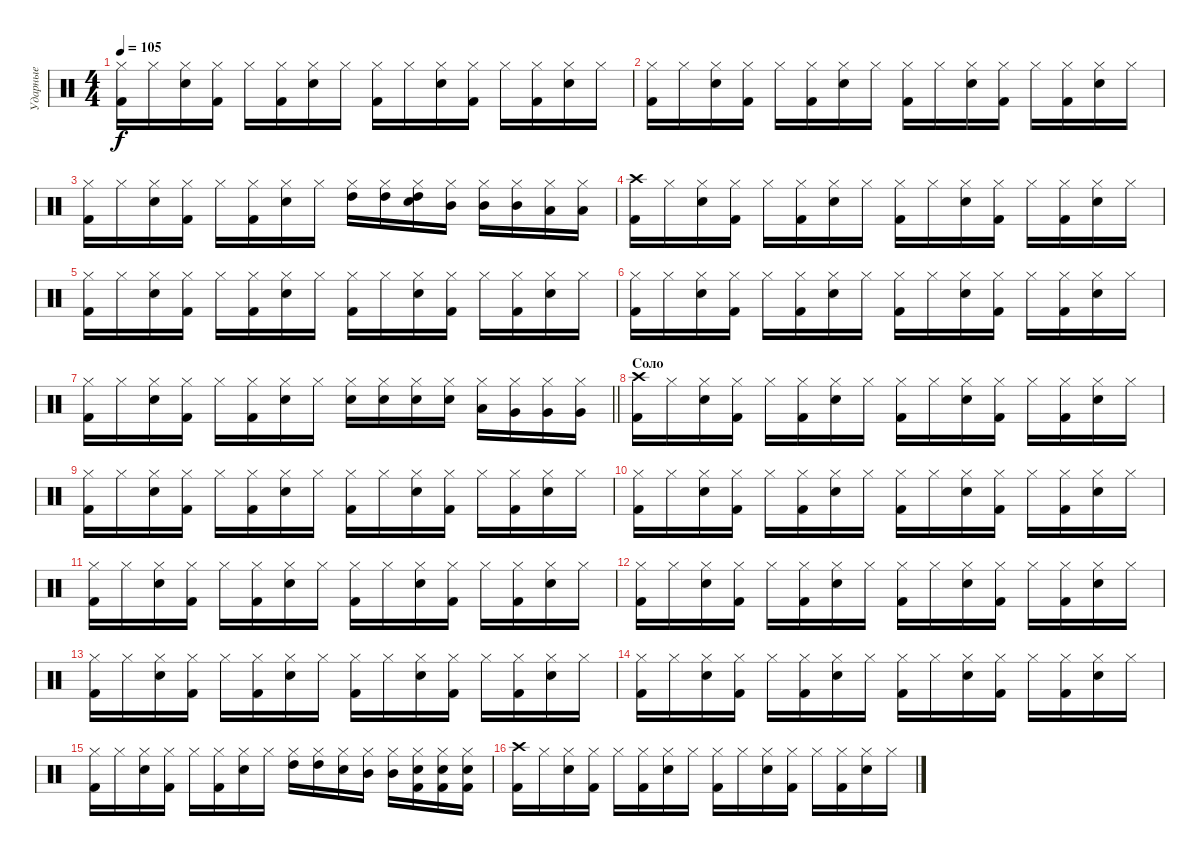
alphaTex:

\track ("Ударные" "Ударные") {instrument percussion}
\staff {score}
\articulation defaults
\ts (4 4)
\tempo 105
\clef neutral
\ks aminor
("Hi-Hat (closed)" "Kick (hit) 2").16{dy f} "Hi-Hat (closed)".16 ("Hi-Hat (closed)" "Snare (hit) 2").16 ("Hi-Hat (closed)" "Kick (hit) 2").16 "Hi-Hat (closed)".16 ("Hi-Hat (closed)" "Kick (hit) 2").16 ("Hi-Hat (closed)" "Snare (hit) 2").16 "Hi-Hat (closed)".16 ("Hi-Hat (closed)" "Kick (hit) 2").16 "Hi-Hat (closed)".16 ("Hi-Hat (closed)" "Snare (hit) 2").16 ("Hi-Hat (closed)" "Kick (hit) 2").16 "Hi-Hat (closed)".16 ("Hi-Hat (closed)" "Kick (hit) 2").16 ("Hi-Hat (closed)" "Snare (hit) 2").16 "Hi-Hat (closed)".16 |
("Hi-Hat (closed)" "Kick (hit) 2").16 "Hi-Hat (closed)".16 ("Hi-Hat (closed)" "Snare (hit) 2").16 ("Hi-Hat (closed)" "Kick (hit) 2").16 "Hi-Hat (closed)".16 ("Hi-Hat (closed)" "Kick (hit) 2").16 ("Hi-Hat (closed)" "Snare (hit) 2").16 "Hi-Hat (closed)".16 ("Hi-Hat (closed)" "Kick (hit) 2").16 "Hi-Hat (closed)".16 ("Hi-Hat (closed)" "Snare (hit) 2").16 ("Hi-Hat (closed)" "Kick (hit) 2").16 "Hi-Hat (closed)".16 ("Hi-Hat (closed)" "Kick (hit) 2").16 ("Hi-Hat (closed)" "Snare (hit) 2").16 "Hi-Hat (closed)".16 |
("Hi-Hat (closed)" "Kick (hit) 2").16 "Hi-Hat (closed)".16 ("Hi-Hat (closed)" "Snare (hit) 2").16 ("Hi-Hat (closed)" "Kick (hit) 2").16 "Hi-Hat (closed)".16 ("Hi-Hat (closed)" "Kick (hit) 2").16 ("Hi-Hat (closed)" "Snare (hit) 2").16 "Hi-Hat (closed)".16 ("Hi-Hat (closed)" "High Tom (hit)").16 ("Hi-Hat (closed)" "High Tom (hit)").16 ("Hi-Hat (closed)" "Snare (hit) 2" "High Tom (hit)").16 ("Hi-Hat (closed)" "Mid Tom (hit)").16 ("Hi-Hat (closed)" "Mid Tom (hit)").16 ("Hi-Hat (closed)" "Mid Tom (hit)").16 ("Hi-Hat (closed)" "Low Tom (hit)").16 ("Hi-Hat (closed)" "Low Tom (hit)").16 |
("Crash high (hit)" "Kick (hit) 2").16 "Hi-Hat (closed)".16 ("Hi-Hat (closed)" "Snare (hit) 2").16 ("Hi-Hat (closed)" "Kick (hit) 2").16 "Hi-Hat (closed)".16 ("Hi-Hat (closed)" "Kick (hit) 2").16 ("Hi-Hat (closed)" "Snare (hit) 2").16 "Hi-Hat (closed)".16 ("Hi-Hat (closed)" "Kick (hit) 2").16 "Hi-Hat (closed)".16 ("Hi-Hat (closed)" "Snare (hit) 2").16 ("Hi-Hat (closed)" "Kick (hit) 2").16 "Hi-Hat (closed)".16 ("Hi-Hat (closed)" "Kick (hit) 2").16 ("Hi-Hat (closed)" "Snare (hit) 2").16 "Hi-Hat (closed)".16 |
("Hi-Hat (closed)" "Kick (hit) 2").16 "Hi-Hat (closed)".16 ("Hi-Hat (closed)" "Snare (hit) 2").16 ("Hi-Hat (closed)" "Kick (hit) 2").16 "Hi-Hat (closed)".16 ("Hi-Hat (closed)" "Kick (hit) 2").16 ("Hi-Hat (closed)" "Snare (hit) 2").16 "Hi-Hat (closed)".16 ("Hi-Hat (closed)" "Kick (hit) 2").16 "Hi-Hat (closed)".16 ("Hi-Hat (closed)" "Snare (hit) 2").16 ("Hi-Hat (closed)" "Kick (hit) 2").16 "Hi-Hat (closed)".16 ("Hi-Hat (closed)" "Kick (hit) 2").16 ("Hi-Hat (closed)" "Snare (hit) 2").16 "Hi-Hat (closed)".16 |
("Hi-Hat (closed)" "Kick (hit) 2").16 "Hi-Hat (closed)".16 ("Hi-Hat (closed)" "Snare (hit) 2").16 ("Hi-Hat (closed)" "Kick (hit) 2").16 "Hi-Hat (closed)".16 ("Hi-Hat (closed)" "Kick (hit) 2").16 ("Hi-Hat (closed)" "Snare (hit) 2").16 "Hi-Hat (closed)".16 ("Hi-Hat (closed)" "Kick (hit) 2").16 "Hi-Hat (closed)".16 ("Hi-Hat (closed)" "Snare (hit) 2").16 ("Hi-Hat (closed)" "Kick (hit) 2").16 "Hi-Hat (closed)".16 ("Hi-Hat (closed)" "Kick (hit) 2").16 ("Hi-Hat (closed)" "Snare (hit) 2").16 "Hi-Hat (closed)".16 |
\barLineRight lightlight
("Hi-Hat (closed)" "Kick (hit) 2").16 "Hi-Hat (closed)".16 ("Hi-Hat (closed)" "Snare (hit) 2").16 ("Hi-Hat (closed)" "Kick (hit) 2").16 "Hi-Hat (closed)".16 ("Hi-Hat (closed)" "Kick (hit) 2").16 ("Hi-Hat (closed)" "Snare (hit) 2").16 "Hi-Hat (closed)".16 ("Hi-Hat (closed)" "Snare (hit) 2").16 ("Hi-Hat (closed)" "Snare (hit) 2").16 ("Hi-Hat (closed)" "Snare (hit) 2").16 ("Hi-Hat (closed)" "Snare (hit) 2").16 ("Hi-Hat (closed)" "Low Tom (hit)").16 ("Hi-Hat (closed)" "Very Low Tom (hit)").16 ("Hi-Hat (closed)" "Very Low Tom (hit)").16 ("Hi-Hat (closed)" "Very Low Tom (hit)").16 |
\section ("" "Соло")
("Crash high (hit)" "Kick (hit) 2").16 "Hi-Hat (closed)".16 ("Hi-Hat (closed)" "Snare (hit) 2").16 ("Hi-Hat (closed)" "Kick (hit) 2").16 "Hi-Hat (closed)".16 ("Hi-Hat (closed)" "Kick (hit) 2").16 ("Hi-Hat (closed)" "Snare (hit) 2").16 "Hi-Hat (closed)".16 ("Hi-Hat (closed)" "Kick (hit) 2").16 "Hi-Hat (closed)".16 ("Hi-Hat (closed)" "Snare (hit) 2").16 ("Hi-Hat (closed)" "Kick (hit) 2").16 "Hi-Hat (closed)".16 ("Hi-Hat (closed)" "Kick (hit) 2").16 ("Hi-Hat (closed)" "Snare (hit) 2").16 "Hi-Hat (closed)".16 |
("Hi-Hat (closed)" "Kick (hit) 2").16 "Hi-Hat (closed)".16 ("Hi-Hat (closed)" "Snare (hit) 2").16 ("Hi-Hat (closed)" "Kick (hit) 2").16 "Hi-Hat (closed)".16 ("Hi-Hat (closed)" "Kick (hit) 2").16 ("Hi-Hat (closed)" "Snare (hit) 2").16 "Hi-Hat (closed)".16 ("Hi-Hat (closed)" "Kick (hit) 2").16 "Hi-Hat (closed)".16 ("Hi-Hat (closed)" "Snare (hit) 2").16 ("Hi-Hat (closed)" "Kick (hit) 2").16 "Hi-Hat (closed)".16 ("Hi-Hat (closed)" "Kick (hit) 2").16 ("Hi-Hat (closed)" "Snare (hit) 2").16 "Hi-Hat (closed)".16 |
("Hi-Hat (closed)" "Kick (hit) 2").16 "Hi-Hat (closed)".16 ("Hi-Hat (closed)" "Snare (hit) 2").16 ("Hi-Hat (closed)" "Kick (hit) 2").16 "Hi-Hat (closed)".16 ("Hi-Hat (closed)" "Kick (hit) 2").16 ("Hi-Hat (closed)" "Snare (hit) 2").16 "Hi-Hat (closed)".16 ("Hi-Hat (closed)" "Kick (hit) 2").16 "Hi-Hat (closed)".16 ("Hi-Hat (closed)" "Snare (hit) 2").16 ("Hi-Hat (closed)" "Kick (hit) 2").16 "Hi-Hat (closed)".16 ("Hi-Hat (closed)" "Kick (hit) 2").16 ("Hi-Hat (closed)" "Snare (hit) 2").16 "Hi-Hat (closed)".16 |
("Hi-Hat (closed)" "Kick (hit) 2").16 "Hi-Hat (closed)".16 ("Hi-Hat (closed)" "Snare (hit) 2").16 ("Hi-Hat (closed)" "Kick (hit) 2").16 "Hi-Hat (closed)".16 ("Hi-Hat (closed)" "Kick (hit) 2").16 ("Hi-Hat (closed)" "Snare (hit) 2").16 "Hi-Hat (closed)".16 ("Hi-Hat (closed)" "Kick (hit) 2").16 "Hi-Hat (closed)".16 ("Hi-Hat (closed)" "Snare (hit) 2").16 ("Hi-Hat (closed)" "Kick (hit) 2").16 "Hi-Hat (closed)".16 ("Hi-Hat (closed)" "Kick (hit) 2").16 ("Hi-Hat (closed)" "Snare (hit) 2").16 "Hi-Hat (closed)".16 |
("Hi-Hat (closed)" "Kick (hit) 2").16 "Hi-Hat (closed)".16 ("Hi-Hat (closed)" "Snare (hit) 2").16 ("Hi-Hat (closed)" "Kick (hit) 2").16 "Hi-Hat (closed)".16 ("Hi-Hat (closed)" "Kick (hit) 2").16 ("Hi-Hat (closed)" "Snare (hit) 2").16 "Hi-Hat (closed)".16 ("Hi-Hat (closed)" "Kick (hit) 2").16 "Hi-Hat (closed)".16 ("Hi-Hat (closed)" "Snare (hit) 2").16 ("Hi-Hat (closed)" "Kick (hit) 2").16 "Hi-Hat (closed)".16 ("Hi-Hat (closed)" "Kick (hit) 2").16 ("Hi-Hat (closed)" "Snare (hit) 2").16 "Hi-Hat (closed)".16 |
("Hi-Hat (closed)" "Kick (hit) 2").16 "Hi-Hat (closed)".16 ("Hi-Hat (closed)" "Snare (hit) 2").16 ("Hi-Hat (closed)" "Kick (hit) 2").16 "Hi-Hat (closed)".16 ("Hi-Hat (closed)" "Kick (hit) 2").16 ("Hi-Hat (closed)" "Snare (hit) 2").16 "Hi-Hat (closed)".16 ("Hi-Hat (closed)" "Kick (hit) 2").16 "Hi-Hat (closed)".16 ("Hi-Hat (closed)" "Snare (hit) 2").16 ("Hi-Hat (closed)" "Kick (hit) 2").16 "Hi-Hat (closed)".16 ("Hi-Hat (closed)" "Kick (hit) 2").16 ("Hi-Hat (closed)" "Snare (hit) 2").16 "Hi-Hat (closed)".16 |
("Hi-Hat (closed)" "Kick (hit) 2").16 "Hi-Hat (closed)".16 ("Hi-Hat (closed)" "Snare (hit) 2").16 ("Hi-Hat (closed)" "Kick (hit) 2").16 "Hi-Hat (closed)".16 ("Hi-Hat (closed)" "Kick (hit) 2").16 ("Hi-Hat (closed)" "Snare (hit) 2").16 "Hi-Hat (closed)".16 ("Hi-Hat (closed)" "Kick (hit) 2").16 "Hi-Hat (closed)".16 ("Hi-Hat (closed)" "Snare (hit) 2").16 ("Hi-Hat (closed)" "Kick (hit) 2").16 "Hi-Hat (closed)".16 ("Hi-Hat (closed)" "Kick (hit) 2").16 ("Hi-Hat (closed)" "Snare (hit) 2").16 "Hi-Hat (closed)".16 |
("Hi-Hat (closed)" "Kick (hit) 2").16 "Hi-Hat (closed)".16 ("Hi-Hat (closed)" "Snare (hit) 2").16 ("Hi-Hat (closed)" "Kick (hit) 2").16 "Hi-Hat (closed)".16 ("Hi-Hat (closed)" "Kick (hit) 2").16 ("Hi-Hat (closed)" "Snare (hit) 2").16 "Hi-Hat (closed)".16 ("Hi-Hat (closed)" "High Tom (hit)").16 ("Hi-Hat (closed)" "High Tom (hit)").16 ("Hi-Hat (closed)" "Snare (hit) 2").16 ("Hi-Hat (closed)" "Mid Tom (hit)").16 ("Hi-Hat (closed)" "Mid Tom (hit)").16 ("Hi-Hat (closed)" "Snare (hit) 2" "Kick (hit) 2").16 ("Hi-Hat (closed)" "Snare (hit) 2" "Kick (hit) 2").16 ("Hi-Hat (closed)" "Snare (hit) 2" "Kick (hit) 2").16 |
("Crash high (hit)" "Kick (hit) 2").16 "Hi-Hat (closed)".16 ("Hi-Hat (closed)" "Snare (hit) 2").16 ("Hi-Hat (closed)" "Kick (hit) 2").16 "Hi-Hat (closed)".16 ("Hi-Hat (closed)" "Kick (hit) 2").16 ("Hi-Hat (closed)" "Snare (hit) 2").16 "Hi-Hat (closed)".16 ("Hi-Hat (closed)" "Kick (hit) 2").16 "Hi-Hat (closed)".16 ("Hi-Hat (closed)" "Snare (hit) 2").16 ("Hi-Hat (closed)" "Kick (hit) 2").16 "Hi-Hat (closed)".16 ("Hi-Hat (closed)" "Kick (hit) 2").16 ("Hi-Hat (closed)" "Snare (hit) 2").16 "Hi-Hat (closed)".16
